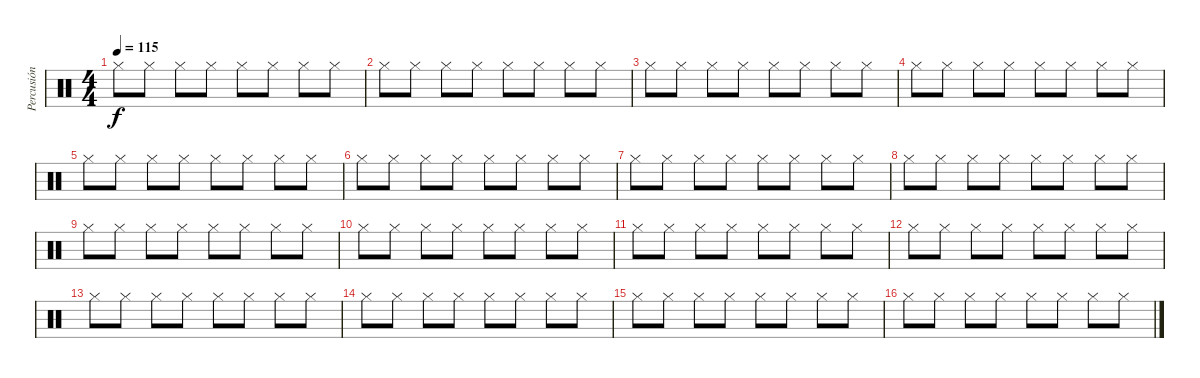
\track ("Percusión" "Percusión") {instrument percussion}
\staff {score}
\articulation defaults
\ts (4 4)
\tempo 115
\clef neutral
\ks c "Hi-Hat (closed)".8{dy f} "Hi-Hat (closed)".8 "Hi-Hat (closed)".8 "Hi-Hat (closed)".8 "Hi-Hat (closed)".8 "Hi-Hat (closed)".8 "Hi-Hat (closed)".8 "Hi-Hat (closed)".8
|
"Hi-Hat (closed)".8 "Hi-Hat (closed)".8 "Hi-Hat (closed)".8 "Hi-Hat (closed)".8 "Hi-Hat (closed)".8 "Hi-Hat (closed)".8 "Hi-Hat (closed)".8 "Hi-Hat (closed)".8 |
"Hi-Hat (closed)".8 "Hi-Hat (closed)".8 "Hi-Hat (closed)".8 "Hi-Hat (closed)".8 "Hi-Hat (closed)".8 "Hi-Hat (closed)".8 "Hi-Hat (closed)".8 "Hi-Hat (closed)".8 |
"Hi-Hat (closed)".8 "Hi-Hat (closed)".8 "Hi-Hat (closed)".8 "Hi-Hat (closed)".8 "Hi-Hat (closed)".8 "Hi-Hat (closed)".8 "Hi-Hat (closed)".8 "Hi-Hat (closed)".8 |
"Hi-Hat (closed)".8 "Hi-Hat (closed)".8 "Hi-Hat (closed)".8 "Hi-Hat (closed)".8 "Hi-Hat (closed)".8 "Hi-Hat (closed)".8 "Hi-Hat (closed)".8 "Hi-Hat (closed)".8 |
"Hi-Hat (closed)".8 "Hi-Hat (closed)".8 "Hi-Hat (closed)".8 "Hi-Hat (closed)".8 "Hi-Hat (closed)".8 "Hi-Hat (closed)".8 "Hi-Hat (closed)".8 "Hi-Hat (closed)".8 |
"Hi-Hat (closed)".8 "Hi-Hat (closed)".8 "Hi-Hat (closed)".8 "Hi-Hat (closed)".8 "Hi-Hat (closed)".8 "Hi-Hat (closed)".8 "Hi-Hat (closed)".8 "Hi-Hat (closed)".8 |
"Hi-Hat (closed)".8 "Hi-Hat (closed)".8 "Hi-Hat (closed)".8 "Hi-Hat (closed)".8 "Hi-Hat (closed)".8 "Hi-Hat (closed)".8 "Hi-Hat (closed)".8 "Hi-Hat (closed)".8 |
"Hi-Hat (closed)".8 "Hi-Hat (closed)".8 "Hi-Hat (closed)".8 "Hi-Hat (closed)".8 "Hi-Hat (closed)".8 "Hi-Hat (closed)".8 "Hi-Hat (closed)".8 "Hi-Hat (closed)".8 |
"Hi-Hat (closed)".8 "Hi-Hat (closed)".8 "Hi-Hat (closed)".8 "Hi-Hat (closed)".8 "Hi-Hat (closed)".8 "Hi-Hat (closed)".8 "Hi-Hat (closed)".8 "Hi-Hat (closed)".8 |
"Hi-Hat (closed)".8 "Hi-Hat (closed)".8 "Hi-Hat (closed)".8 "Hi-Hat (closed)".8 "Hi-Hat (closed)".8 "Hi-Hat (closed)".8 "Hi-Hat (closed)".8 "Hi-Hat (closed)".8 |
"Hi-Hat (closed)".8 "Hi-Hat (closed)".8 "Hi-Hat (closed)".8 "Hi-Hat (closed)".8 "Hi-Hat (closed)".8 "Hi-Hat (closed)".8 "Hi-Hat (closed)".8 "Hi-Hat (closed)".8 |
"Hi-Hat (closed)".8 "Hi-Hat (closed)".8 "Hi-Hat (closed)".8 "Hi-Hat (closed)".8 "Hi-Hat (closed)".8 "Hi-Hat (closed)".8 "Hi-Hat (closed)".8 "Hi-Hat (closed)".8 |
"Hi-Hat (closed)".8 "Hi-Hat (closed)".8 "Hi-Hat (closed)".8 "Hi-Hat (closed)".8 "Hi-Hat (closed)".8 "Hi-Hat (closed)".8 "Hi-Hat (closed)".8 "Hi-Hat (closed)".8 |
"Hi-Hat (closed)".8 "Hi-Hat (closed)".8 "Hi-Hat (closed)".8 "Hi-Hat (closed)".8 "Hi-Hat (closed)".8 "Hi-Hat (closed)".8 "Hi-Hat (closed)".8 "Hi-Hat (closed)".8 |
"Hi-Hat (closed)".8 "Hi-Hat (closed)".8 "Hi-Hat (closed)".8 "Hi-Hat (closed)".8 "Hi-Hat (closed)".8 "Hi-Hat (closed)".8 "Hi-Hat (closed)".8 "Hi-Hat (closed)".8
